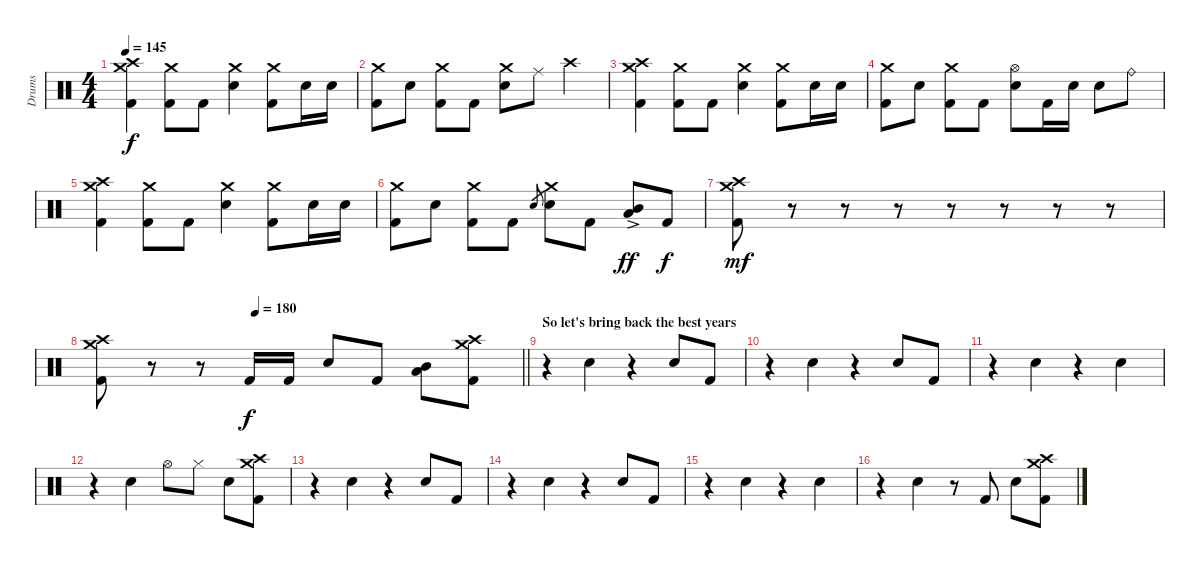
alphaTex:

\track ("Drums" "Drums") {instrument percussion}
\staff {score}
\articulation defaults
\ts (4 4)
\tempo 145
\clef neutral
\ks c
("Crash high (hit)" "Crash medium (hit)" "Kick (hit) 2").4{dy f} ("Crash medium (hit)" "Kick (hit) 2").8 "Kick (hit) 2".8 ("Crash medium (hit)" "Electric Snare (hit)").4 ("Crash medium (hit)" "Kick (hit) 2").8 "Electric Snare (hit)".16 "Electric Snare (hit)".16 |
("Crash medium (hit)" "Kick (hit) 2").8 "Electric Snare (hit)".8 ("Crash medium (hit)" "Kick (hit) 2").8 "Kick (hit) 2".8 ("Crash medium (hit)" "Electric Snare (hit)").8 "Ride (middle)".8 "Crash high (hit)".4 |
("Crash high (hit)" "Crash medium (hit)" "Kick (hit) 2").4 ("Crash medium (hit)" "Kick (hit) 2").8 "Kick (hit) 2".8 ("Crash medium (hit)" "Electric Snare (hit)").4 ("Crash medium (hit)" "Kick (hit) 2").8 "Electric Snare (hit)".16 "Electric Snare (hit)".16 |
("Crash medium (hit)" "Kick (hit) 2").8 "Electric Snare (hit)".8 ("Crash medium (hit)" "Kick (hit) 2").8 "Kick (hit) 2".8 ("Hi-Hat (open)" "Electric Snare (hit)").8 "Kick (hit) 2".16 "Electric Snare (hit)".16 "Electric Snare (hit)".8 "Ride (bell)".8 |
("Crash high (hit)" "Crash medium (hit)" "Kick (hit) 2").4 ("Crash medium (hit)" "Kick (hit) 2").8 "Kick (hit) 2".8 ("Crash medium (hit)" "Electric Snare (hit)").4 ("Crash medium (hit)" "Kick (hit) 2").8 "Electric Snare (hit)".16 "Electric Snare (hit)".16 |
("Crash medium (hit)" "Kick (hit) 2").8 "Electric Snare (hit)".8 ("Crash medium (hit)" "Kick (hit) 2").8 "Kick (hit) 2".8 "Electric Snare (hit)".8{gr} ("Crash medium (hit)" "Electric Snare (hit)").8 "Kick (hit) 2".8 ("Mid Tom (hit)"{ac} "Low Tom (hit)"{ac}).8{dy ff} "Kick (hit) 2".8{dy f} |
("Crash high (hit)" "Crash medium (hit)" "Kick (hit) 2").8{dy mf} r.8 r.8 r.8 r.8 r.8 r.8 r.8 |
\tempo (180 0.375)
\barLineRight lightlight
("Crash high (hit)" "Crash medium (hit)" "Kick (hit) 2").8 r.8 r.8 "Kick (hit) 2".16{dy f} "Kick (hit) 2".16 "Electric Snare (hit)".8 "Kick (hit) 2".8 ("Mid Tom (hit)" "Low Tom (hit)").8 ("Crash medium (hit)" "Crash high (hit)" "Kick (hit) 2").8 |
\section ("" "So let's bring back the best years")
r.4 "Electric Snare (hit)".4 r.4 "Electric Snare (hit)".8 "Kick (hit) 2".8 |
r.4 "Electric Snare (hit)".4 r.4 "Electric Snare (hit)".8 "Kick (hit) 2".8 |
r.4 "Electric Snare (hit)".4 r.4 "Electric Snare (hit)".4 |
r.4 "Electric Snare (hit)".4 "Hi-Hat (open)".8 "Hi-Hat (closed)".8 "Electric Snare (hit)".8 ("Crash medium (hit)" "Crash high (hit)" "Kick (hit) 2").8 |
r.4 "Electric Snare (hit)".4 r.4 "Electric Snare (hit)".8 "Kick (hit) 2".8 |
r.4 "Electric Snare (hit)".4 r.4 "Electric Snare (hit)".8 "Kick (hit) 2".8 |
r.4 "Electric Snare (hit)".4 r.4 "Electric Snare (hit)".4 |
r.4 "Electric Snare (hit)".4 r.8 "Kick (hit) 2".8 "Electric Snare (hit)".8 ("Crash medium (hit)" "Crash high (hit)" "Kick (hit) 2").8
